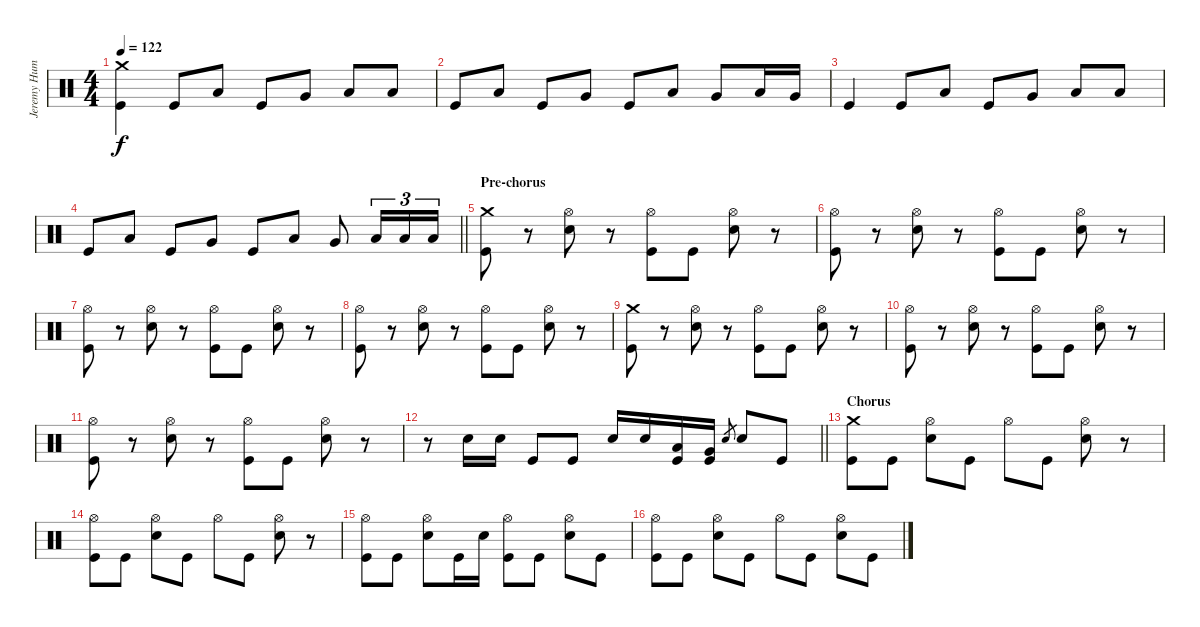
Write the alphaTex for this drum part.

\track ("Jeremy Hummel Drums]" "Jeremy Hum") {instrument percussion}
\staff {score}
\articulation defaults
\ts (4 4)
\tempo 122
\clef neutral
\ks c
("Crash medium (hit)" "Kick (hit)").4{dy f} "Kick (hit)".8 "Low Tom (hit)".8 "Kick (hit)".8 "Very Low Tom (hit)".8 "Low Floor Tom (hit)".8 "Low Tom (hit)".8 |
"Kick (hit)".8 "Low Tom (hit)".8 "Kick (hit)".8 "Very Low Tom (hit)".8 "Kick (hit)".8 "Low Floor Tom (hit)".8 "Very Low Tom (hit)".8 "Low Tom (hit)".16 "Very Low Tom (hit)".16 |
"Kick (hit)".4 "Kick (hit)".8 "Low Tom (hit)".8 "Kick (hit)".8 "Very Low Tom (hit)".8 "Low Floor Tom (hit)".8 "Low Tom (hit)".8 |
\barLineRight lightlight "Kick (hit)".8 "Low Tom (hit)".8 "Kick (hit)".8 "Very Low Tom (hit)".8 "Kick (hit)".8 "Low Floor Tom (hit)".8 "Very Low Tom (hit)".8 "Low Tom (hit)".16{tu (3 2)} "Low Tom (hit)".16{tu (3 2)} "Low Tom (hit)".16{tu (3 2)}
|
\section ("" "Pre-chorus")
("Crash medium (hit)" "Kick (hit)").8 r.8 ("Hi-Hat (open)" "Electric Snare (hit)").8 r.8 ("Hi-Hat (open)" "Kick (hit)").8 "Kick (hit)".8 ("Hi-Hat (open)" "Electric Snare (hit)").8 r.8 |
("Hi-Hat (open)" "Kick (hit)").8 r.8 ("Hi-Hat (open)" "Electric Snare (hit)").8 r.8 ("Hi-Hat (open)" "Kick (hit)").8 "Kick (hit)".8 ("Hi-Hat (open)" "Electric Snare (hit)").8 r.8 |
("Hi-Hat (open)" "Kick (hit)").8 r.8 ("Hi-Hat (open)" "Electric Snare (hit)").8 r.8 ("Hi-Hat (open)" "Kick (hit)").8 "Kick (hit)".8 ("Hi-Hat (open)" "Electric Snare (hit)").8 r.8 |
("Hi-Hat (open)" "Kick (hit)").8 r.8 ("Hi-Hat (open)" "Electric Snare (hit)").8 r.8 ("Hi-Hat (open)" "Kick (hit)").8 "Kick (hit)".8 ("Hi-Hat (open)" "Electric Snare (hit)").8 r.8 |
("Crash medium (hit)" "Kick (hit)").8 r.8 ("Hi-Hat (open)" "Electric Snare (hit)").8 r.8 ("Hi-Hat (open)" "Kick (hit)").8 "Kick (hit)".8 ("Hi-Hat (open)" "Electric Snare (hit)").8 r.8 |
("Hi-Hat (open)" "Kick (hit)").8 r.8 ("Hi-Hat (open)" "Electric Snare (hit)").8 r.8 ("Hi-Hat (open)" "Kick (hit)").8 "Kick (hit)".8 ("Hi-Hat (open)" "Electric Snare (hit)").8 r.8 |
("Hi-Hat (open)" "Kick (hit)").8 r.8 ("Hi-Hat (open)" "Electric Snare (hit)").8 r.8 ("Hi-Hat (open)" "Kick (hit)").8 "Kick (hit)".8 ("Hi-Hat (open)" "Electric Snare (hit)").8 r.8 |
\barLineRight lightlight
r.8 "Electric Snare (hit)".16 "Electric Snare (hit)".16 "Kick (hit)".8 "Kick (hit)".8 "Electric Snare (hit)".16 "Electric Snare (hit)".16 ("Low Tom (hit)" "Kick (hit)").16 ("Very Low Tom (hit)" "Kick (hit)").16 "Electric Snare (hit)".8{gr} "Electric Snare (hit)".8 "Kick (hit)".8 |
\section ("" "Chorus")
("Crash medium (hit)" "Kick (hit)").8 "Kick (hit)".8 ("Hi-Hat (open)" "Electric Snare (hit)").8 "Kick (hit)".8 "Hi-Hat (open)".8 "Kick (hit)".8 ("Hi-Hat (open)" "Electric Snare (hit)").8 r.8 |
("Hi-Hat (open)" "Kick (hit)").8 "Kick (hit)".8 ("Hi-Hat (open)" "Electric Snare (hit)").8 "Kick (hit)".8 "Hi-Hat (open)".8 "Kick (hit)".8 ("Hi-Hat (open)" "Electric Snare (hit)").8 r.8 |
("Hi-Hat (open)" "Kick (hit)").8 "Kick (hit)".8 ("Hi-Hat (open)" "Electric Snare (hit)").8 "Kick (hit)".16 "Electric Snare (hit)".16 ("Hi-Hat (open)" "Kick (hit)").8 "Kick (hit)".8 ("Hi-Hat (open)" "Electric Snare (hit)").8 "Kick (hit)".8 |
("Hi-Hat (open)" "Kick (hit)").8 "Kick (hit)".8 ("Hi-Hat (open)" "Electric Snare (hit)").8 "Kick (hit)".8 "Hi-Hat (open)".8 "Kick (hit)".8 ("Hi-Hat (open)" "Electric Snare (hit)").8 "Kick (hit)".8
